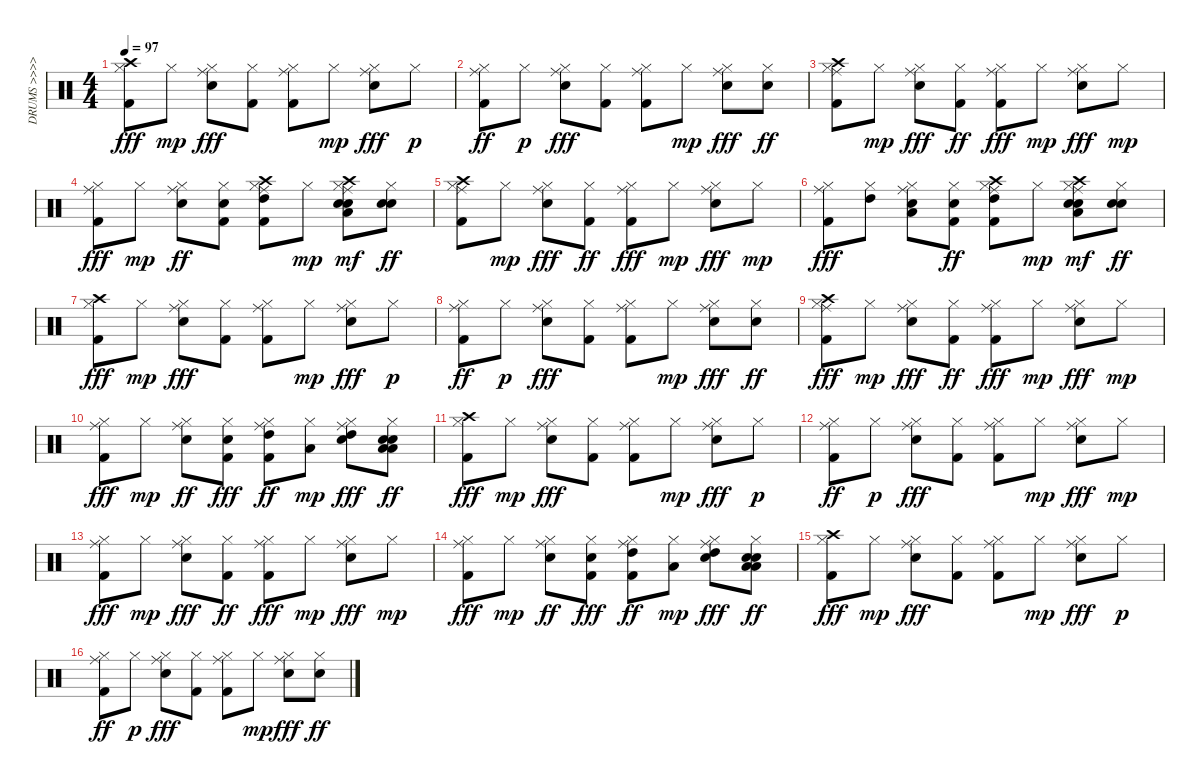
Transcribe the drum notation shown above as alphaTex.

\track ("DRUMS >>>>>>" "DRUMS >>>>") {instrument percussion}
\staff {score}
\articulation defaults
\ts (4 4)
\tempo 97
\clef neutral
\ks c
("Hi-Hat (closed)" "Crash high (hit)" "Kick (hit) 2").8{dy fff} "Hi-Hat (closed)".8{dy mp} ("Hi-Hat (closed)" "Ride (middle)" "Snare (hit) 2").8{dy fff} ("Hi-Hat (closed)" "Kick (hit) 2").8 ("Hi-Hat (closed)" "Ride (middle)" "Kick (hit) 2").8 "Hi-Hat (closed)".8{dy mp} ("Hi-Hat (closed)" "Ride (middle)" "Snare (hit) 2").8{dy fff} "Hi-Hat (closed)".8{dy p} |
("Hi-Hat (closed)" "Ride (middle)" "Kick (hit) 2").8{dy ff} "Hi-Hat (closed)".8{dy p} ("Hi-Hat (closed)" "Ride (middle)" "Snare (hit) 2").8{dy fff} ("Hi-Hat (closed)" "Kick (hit) 2").8 ("Hi-Hat (closed)" "Ride (middle)" "Kick (hit) 2").8 "Hi-Hat (closed)".8{dy mp} ("Hi-Hat (closed)" "Ride (middle)" "Snare (hit) 2").8{dy fff} ("Hi-Hat (closed)" "Snare (hit) 2").8{dy ff} |
("Hi-Hat (closed)" "Ride (middle)" "Kick (hit) 2" "Crash high (hit)").8 "Hi-Hat (closed)".8{dy mp} ("Hi-Hat (closed)" "Ride (middle)" "Snare (hit) 2").8{dy fff} ("Hi-Hat (closed)" "Kick (hit) 2").8{dy ff} ("Hi-Hat (closed)" "Ride (middle)" "Kick (hit) 2").8{dy fff} "Hi-Hat (closed)".8{dy mp} ("Hi-Hat (closed)" "Ride (middle)" "Snare (hit) 2").8{dy fff} "Hi-Hat (closed)".8{dy mp} |
("Hi-Hat (closed)" "Ride (middle)" "Kick (hit) 2").8{dy fff} "Hi-Hat (closed)".8{dy mp} ("Hi-Hat (closed)" "Ride (middle)" "Snare (hit) 2").8{dy ff} ("Hi-Hat (closed)" "Kick (hit) 2" "Snare (hit) 2").8 ("Hi-Hat (closed)" "Ride (middle)" "Kick (hit) 2" "Crash high (hit)" "High Tom (hit)").8 "Hi-Hat (closed)".8{dy mp} ("Hi-Hat (closed)" "Ride (middle)" "Snare (hit) 2" "Crash high (hit)" "Low Tom (hit)" "Snare (hit) 2").8{dy mf} ("Hi-Hat (closed)" "Snare (hit) 2" "Snare (hit) 2").8{dy ff} |
("Hi-Hat (closed)" "Ride (middle)" "Kick (hit) 2" "Crash high (hit)").8 "Hi-Hat (closed)".8{dy mp} ("Hi-Hat (closed)" "Ride (middle)" "Snare (hit) 2").8{dy fff} ("Hi-Hat (closed)" "Kick (hit) 2").8{dy ff} ("Hi-Hat (closed)" "Ride (middle)" "Kick (hit) 2").8{dy fff} "Hi-Hat (closed)".8{dy mp} ("Hi-Hat (closed)" "Ride (middle)" "Snare (hit) 2").8{dy fff} "Hi-Hat (closed)".8{dy mp} |
("Hi-Hat (closed)" "Ride (middle)" "Kick (hit) 2").8{dy fff} ("Hi-Hat (closed)" "High Tom (hit)").8 ("Hi-Hat (closed)" "Ride (middle)" "Snare (hit) 2" "Low Tom (hit)").8 ("Hi-Hat (closed)" "Kick (hit) 2" "Snare (hit) 2").8{dy ff} ("Hi-Hat (closed)" "Ride (middle)" "Kick (hit) 2" "Crash high (hit)" "High Tom (hit)").8 "Hi-Hat (closed)".8{dy mp} ("Hi-Hat (closed)" "Ride (middle)" "Snare (hit) 2" "Crash high (hit)" "Low Tom (hit)" "Snare (hit) 2").8{dy mf} ("Hi-Hat (closed)" "Snare (hit) 2" "Snare (hit) 2").8{dy ff} |
("Hi-Hat (closed)" "Crash high (hit)" "Kick (hit) 2").8{dy fff} "Hi-Hat (closed)".8{dy mp} ("Hi-Hat (closed)" "Ride (middle)" "Snare (hit) 2").8{dy fff} ("Hi-Hat (closed)" "Kick (hit) 2").8 ("Hi-Hat (closed)" "Ride (middle)" "Kick (hit) 2").8 "Hi-Hat (closed)".8{dy mp} ("Hi-Hat (closed)" "Ride (middle)" "Snare (hit) 2").8{dy fff} "Hi-Hat (closed)".8{dy p} |
("Hi-Hat (closed)" "Ride (middle)" "Kick (hit) 2").8{dy ff} "Hi-Hat (closed)".8{dy p} ("Hi-Hat (closed)" "Ride (middle)" "Snare (hit) 2").8{dy fff} ("Hi-Hat (closed)" "Kick (hit) 2").8 ("Hi-Hat (closed)" "Ride (middle)" "Kick (hit) 2").8 "Hi-Hat (closed)".8{dy mp} ("Hi-Hat (closed)" "Ride (middle)" "Snare (hit) 2").8{dy fff} ("Hi-Hat (closed)" "Snare (hit) 2").8{dy ff} |
("Crash high (hit)" "Hi-Hat (closed)" "Ride (middle)" "Kick (hit) 2").8{dy fff} "Hi-Hat (closed)".8{dy mp} ("Hi-Hat (closed)" "Ride (middle)" "Snare (hit) 2").8{dy fff} ("Hi-Hat (closed)" "Kick (hit) 2").8{dy ff} ("Hi-Hat (closed)" "Ride (middle)" "Kick (hit) 2").8{dy fff} "Hi-Hat (closed)".8{dy mp} ("Hi-Hat (closed)" "Ride (middle)" "Snare (hit) 2").8{dy fff} "Hi-Hat (closed)".8{dy mp} |
("Hi-Hat (closed)" "Ride (middle)" "Kick (hit) 2").8{dy fff} "Hi-Hat (closed)".8{dy mp} ("Hi-Hat (closed)" "Ride (middle)" "Snare (hit) 2").8{dy ff} ("Hi-Hat (closed)" "Kick (hit) 2" "Snare (hit) 2").8{dy fff} ("Hi-Hat (closed)" "Ride (middle)" "Kick (hit) 2" "High Tom (hit)").8{dy ff} ("Low Tom (hit)" "Hi-Hat (closed)").8{dy mp} ("High Tom (hit)" "Hi-Hat (closed)" "Ride (middle)" "Snare (hit) 2").8{dy fff} ("Snare (hit) 2" "Low Tom (hit)" "Hi-Hat (closed)" "Snare (hit) 2" "Low Floor Tom (hit)").8{dy ff} |
("Hi-Hat (closed)" "Crash high (hit)" "Kick (hit) 2").8{dy fff} "Hi-Hat (closed)".8{dy mp} ("Hi-Hat (closed)" "Ride (middle)" "Snare (hit) 2").8{dy fff} ("Hi-Hat (closed)" "Kick (hit) 2").8 ("Hi-Hat (closed)" "Ride (middle)" "Kick (hit) 2").8 "Hi-Hat (closed)".8{dy mp} ("Hi-Hat (closed)" "Ride (middle)" "Snare (hit) 2").8{dy fff} "Hi-Hat (closed)".8{dy p} |
("Hi-Hat (closed)" "Ride (middle)" "Kick (hit) 2").8{dy ff} "Hi-Hat (closed)".8{dy p} ("Hi-Hat (closed)" "Ride (middle)" "Snare (hit) 2").8{dy fff} ("Hi-Hat (closed)" "Kick (hit) 2").8 ("Hi-Hat (closed)" "Ride (middle)" "Kick (hit) 2").8 "Hi-Hat (closed)".8{dy mp} ("Hi-Hat (closed)" "Ride (middle)" "Snare (hit) 2").8{dy fff} "Hi-Hat (closed)".8{dy mp} |
("Hi-Hat (closed)" "Ride (middle)" "Kick (hit) 2").8{dy fff} "Hi-Hat (closed)".8{dy mp} ("Hi-Hat (closed)" "Ride (middle)" "Snare (hit) 2").8{dy fff} ("Hi-Hat (closed)" "Kick (hit) 2").8{dy ff} ("Hi-Hat (closed)" "Ride (middle)" "Kick (hit) 2").8{dy fff} "Hi-Hat (closed)".8{dy mp} ("Hi-Hat (closed)" "Ride (middle)" "Snare (hit) 2").8{dy fff} "Hi-Hat (closed)".8{dy mp} |
("Hi-Hat (closed)" "Ride (middle)" "Kick (hit) 2").8{dy fff} "Hi-Hat (closed)".8{dy mp} ("Hi-Hat (closed)" "Ride (middle)" "Snare (hit) 2").8{dy ff} ("Hi-Hat (closed)" "Kick (hit) 2" "Snare (hit) 2").8{dy fff} ("Hi-Hat (closed)" "Ride (middle)" "Kick (hit) 2" "High Tom (hit)").8{dy ff} ("Low Tom (hit)" "Hi-Hat (closed)").8{dy mp} ("High Tom (hit)" "Hi-Hat (closed)" "Ride (middle)" "Snare (hit) 2").8{dy fff} ("Snare (hit) 2" "Low Tom (hit)" "Hi-Hat (closed)" "Snare (hit) 2" "Low Floor Tom (hit)").8{dy ff} |
("Hi-Hat (closed)" "Crash high (hit)" "Kick (hit) 2").8{dy fff} "Hi-Hat (closed)".8{dy mp} ("Hi-Hat (closed)" "Ride (middle)" "Snare (hit) 2").8{dy fff} ("Hi-Hat (closed)" "Kick (hit) 2").8 ("Hi-Hat (closed)" "Ride (middle)" "Kick (hit) 2").8 "Hi-Hat (closed)".8{dy mp} ("Hi-Hat (closed)" "Ride (middle)" "Snare (hit) 2").8{dy fff} "Hi-Hat (closed)".8{dy p} |
("Hi-Hat (closed)" "Ride (middle)" "Kick (hit) 2").8{dy ff} "Hi-Hat (closed)".8{dy p} ("Hi-Hat (closed)" "Ride (middle)" "Snare (hit) 2").8{dy fff} ("Hi-Hat (closed)" "Kick (hit) 2").8 ("Hi-Hat (closed)" "Ride (middle)" "Kick (hit) 2").8 "Hi-Hat (closed)".8{dy mp} ("Hi-Hat (closed)" "Ride (middle)" "Snare (hit) 2").8{dy fff} ("Hi-Hat (closed)" "Snare (hit) 2").8{dy ff}
